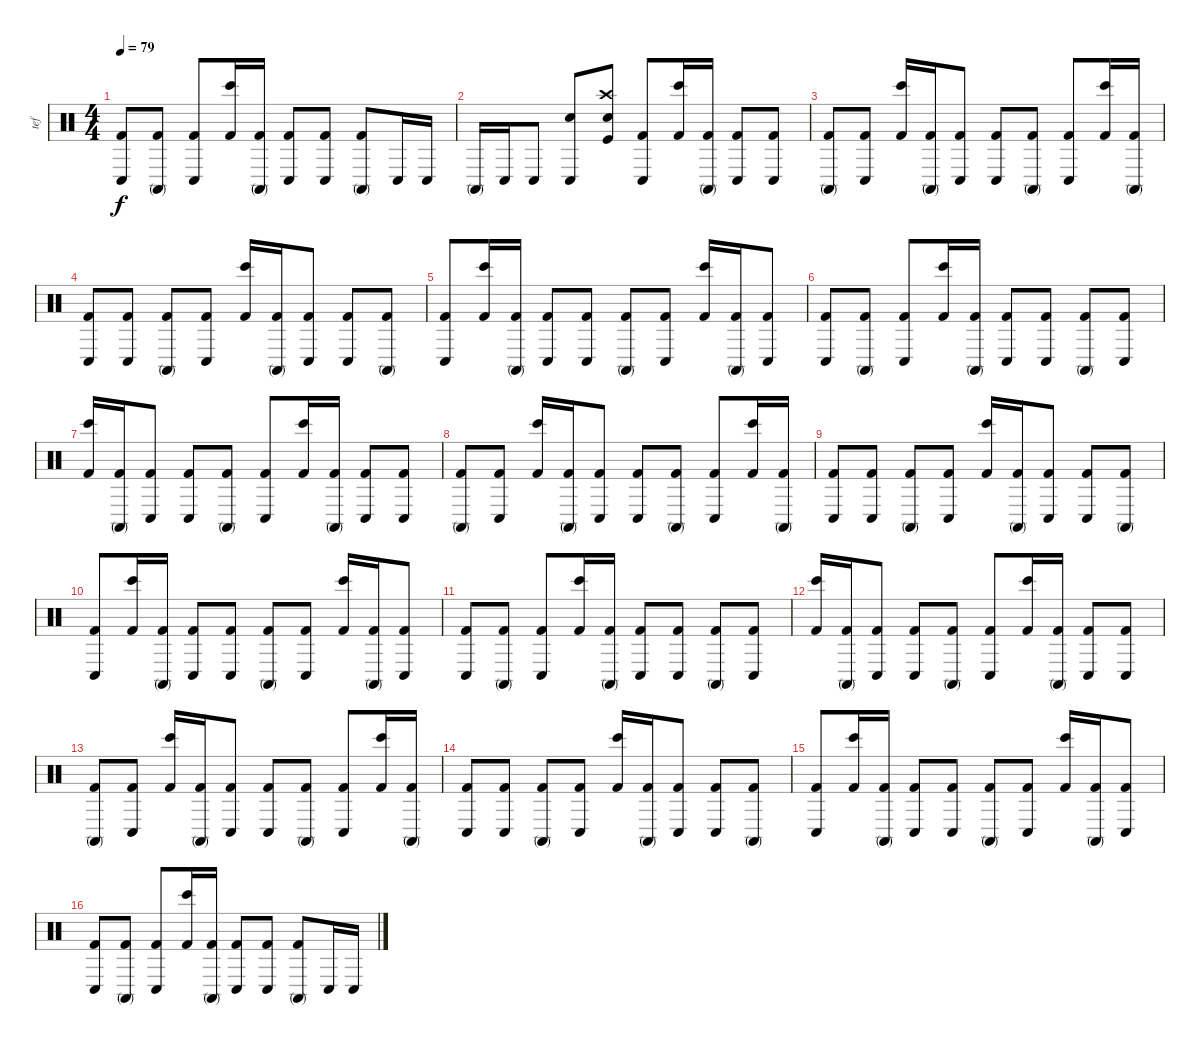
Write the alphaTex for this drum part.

\track ("tef" "tef") {instrument percussion}
\staff {score}
\articulation defaults
\ts (4 4)
\tempo 79
\clef neutral
\ks c
("Conga low (hit)" "Kick (hit) 2").8{dy f} ("Conga high (mute)" "Kick (hit) 2").8 ("Conga low (hit)" "Kick (hit) 2").8 ("Bongo High (hit)" "Kick (hit) 2").16 ("Conga high (mute)" "Kick (hit) 2").16 ("Conga low (hit)" "Kick (hit) 2").8 ("Conga low (hit)" "Kick (hit) 2").8 ("Conga high (mute)" "Kick (hit) 2").8 "Conga low (hit)".16{volume 15} "Conga low (hit)".16 |
"Conga high (mute)".16 "Conga low (hit)".16 "Conga low (hit)".8 ("Conga low (hit)" "Electric Snare (hit)").8 ("Electric Snare (hit)" "Crash high (hit)" "Kick (hit)").8 ("Conga low (hit)" "Kick (hit) 2").8 ("Bongo High (hit)" "Kick (hit) 2").16 ("Conga high (mute)" "Kick (hit) 2").16 ("Conga low (hit)" "Kick (hit) 2").8 ("Conga low (hit)" "Kick (hit) 2").8 |
("Conga high (mute)" "Kick (hit) 2").8 ("Conga low (hit)" "Kick (hit) 2").8 ("Bongo High (hit)" "Kick (hit) 2").16 ("Conga high (mute)" "Kick (hit) 2").16 ("Conga low (hit)" "Kick (hit) 2").8 ("Conga low (hit)" "Kick (hit) 2").8 ("Conga high (mute)" "Kick (hit) 2").8 ("Conga low (hit)" "Kick (hit) 2").8 ("Bongo High (hit)" "Kick (hit) 2").16 ("Conga high (mute)" "Kick (hit) 2").16 |
("Conga low (hit)" "Kick (hit) 2").8 ("Conga low (hit)" "Kick (hit) 2").8 ("Conga high (mute)" "Kick (hit) 2").8 ("Conga low (hit)" "Kick (hit) 2").8 ("Bongo High (hit)" "Kick (hit) 2").16 ("Conga high (mute)" "Kick (hit) 2").16 ("Conga low (hit)" "Kick (hit) 2").8 ("Conga low (hit)" "Kick (hit) 2").8 ("Conga high (mute)" "Kick (hit) 2").8 |
("Conga low (hit)" "Kick (hit) 2").8 ("Bongo High (hit)" "Kick (hit) 2").16 ("Conga high (mute)" "Kick (hit) 2").16 ("Conga low (hit)" "Kick (hit) 2").8 ("Conga low (hit)" "Kick (hit) 2").8 ("Conga high (mute)" "Kick (hit) 2").8 ("Conga low (hit)" "Kick (hit) 2").8 ("Bongo High (hit)" "Kick (hit) 2").16 ("Conga high (mute)" "Kick (hit) 2").16 ("Conga low (hit)" "Kick (hit) 2").8 |
("Conga low (hit)" "Kick (hit) 2").8 ("Conga high (mute)" "Kick (hit) 2").8 ("Conga low (hit)" "Kick (hit) 2").8 ("Bongo High (hit)" "Kick (hit) 2").16 ("Conga high (mute)" "Kick (hit) 2").16 ("Conga low (hit)" "Kick (hit) 2").8 ("Conga low (hit)" "Kick (hit) 2").8 ("Conga high (mute)" "Kick (hit) 2").8 ("Conga low (hit)" "Kick (hit) 2").8 |
("Bongo High (hit)" "Kick (hit) 2").16 ("Conga high (mute)" "Kick (hit) 2").16 ("Conga low (hit)" "Kick (hit) 2").8 ("Conga low (hit)" "Kick (hit) 2").8 ("Conga high (mute)" "Kick (hit) 2").8 ("Conga low (hit)" "Kick (hit) 2").8 ("Bongo High (hit)" "Kick (hit) 2").16 ("Conga high (mute)" "Kick (hit) 2").16 ("Conga low (hit)" "Kick (hit) 2").8 ("Conga low (hit)" "Kick (hit) 2").8 |
("Conga high (mute)" "Kick (hit) 2").8 ("Conga low (hit)" "Kick (hit) 2").8 ("Bongo High (hit)" "Kick (hit) 2").16 ("Conga high (mute)" "Kick (hit) 2").16 ("Conga low (hit)" "Kick (hit) 2").8 ("Conga low (hit)" "Kick (hit) 2").8 ("Conga high (mute)" "Kick (hit) 2").8 ("Conga low (hit)" "Kick (hit) 2").8 ("Bongo High (hit)" "Kick (hit) 2").16 ("Conga high (mute)" "Kick (hit) 2").16 |
("Conga low (hit)" "Kick (hit) 2").8 ("Conga low (hit)" "Kick (hit) 2").8 ("Conga high (mute)" "Kick (hit) 2").8 ("Conga low (hit)" "Kick (hit) 2").8 ("Bongo High (hit)" "Kick (hit) 2").16 ("Conga high (mute)" "Kick (hit) 2").16 ("Conga low (hit)" "Kick (hit) 2").8 ("Conga low (hit)" "Kick (hit) 2").8 ("Conga high (mute)" "Kick (hit) 2").8 |
("Conga low (hit)" "Kick (hit) 2").8 ("Bongo High (hit)" "Kick (hit) 2").16 ("Conga high (mute)" "Kick (hit) 2").16 ("Conga low (hit)" "Kick (hit) 2").8 ("Conga low (hit)" "Kick (hit) 2").8 ("Conga high (mute)" "Kick (hit) 2").8 ("Conga low (hit)" "Kick (hit) 2").8 ("Bongo High (hit)" "Kick (hit) 2").16 ("Conga high (mute)" "Kick (hit) 2").16 ("Conga low (hit)" "Kick (hit) 2").8 |
("Conga low (hit)" "Kick (hit) 2").8 ("Conga high (mute)" "Kick (hit) 2").8 ("Conga low (hit)" "Kick (hit) 2").8 ("Bongo High (hit)" "Kick (hit) 2").16 ("Conga high (mute)" "Kick (hit) 2").16 ("Conga low (hit)" "Kick (hit) 2").8 ("Conga low (hit)" "Kick (hit) 2").8 ("Conga high (mute)" "Kick (hit) 2").8 ("Conga low (hit)" "Kick (hit) 2").8 |
("Bongo High (hit)" "Kick (hit) 2").16 ("Conga high (mute)" "Kick (hit) 2").16 ("Conga low (hit)" "Kick (hit) 2").8 ("Conga low (hit)" "Kick (hit) 2").8 ("Conga high (mute)" "Kick (hit) 2").8 ("Conga low (hit)" "Kick (hit) 2").8 ("Bongo High (hit)" "Kick (hit) 2").16 ("Conga high (mute)" "Kick (hit) 2").16 ("Conga low (hit)" "Kick (hit) 2").8 ("Conga low (hit)" "Kick (hit) 2").8 |
("Conga high (mute)" "Kick (hit) 2").8 ("Conga low (hit)" "Kick (hit) 2").8 ("Bongo High (hit)" "Kick (hit) 2").16 ("Conga high (mute)" "Kick (hit) 2").16 ("Conga low (hit)" "Kick (hit) 2").8 ("Conga low (hit)" "Kick (hit) 2").8 ("Conga high (mute)" "Kick (hit) 2").8 ("Conga low (hit)" "Kick (hit) 2").8 ("Bongo High (hit)" "Kick (hit) 2").16 ("Conga high (mute)" "Kick (hit) 2").16 |
("Conga low (hit)" "Kick (hit) 2").8 ("Conga low (hit)" "Kick (hit) 2").8 ("Conga high (mute)" "Kick (hit) 2").8 ("Conga low (hit)" "Kick (hit) 2").8 ("Bongo High (hit)" "Kick (hit) 2").16 ("Conga high (mute)" "Kick (hit) 2").16 ("Conga low (hit)" "Kick (hit) 2").8 ("Conga low (hit)" "Kick (hit) 2").8 ("Conga high (mute)" "Kick (hit) 2").8 |
("Conga low (hit)" "Kick (hit) 2").8 ("Bongo High (hit)" "Kick (hit) 2").16 ("Conga high (mute)" "Kick (hit) 2").16 ("Conga low (hit)" "Kick (hit) 2").8 ("Conga low (hit)" "Kick (hit) 2").8 ("Conga high (mute)" "Kick (hit) 2").8 ("Conga low (hit)" "Kick (hit) 2").8 ("Bongo High (hit)" "Kick (hit) 2").16 ("Conga high (mute)" "Kick (hit) 2").16 ("Conga low (hit)" "Kick (hit) 2").8 |
("Conga low (hit)" "Kick (hit) 2").8 ("Conga high (mute)" "Kick (hit) 2").8 ("Conga low (hit)" "Kick (hit) 2").8 ("Bongo High (hit)" "Kick (hit) 2").16 ("Conga high (mute)" "Kick (hit) 2").16 ("Conga low (hit)" "Kick (hit) 2").8 ("Conga low (hit)" "Kick (hit) 2").8 ("Conga high (mute)" "Kick (hit) 2").8 "Conga low (hit)".16{volume 15} "Conga low (hit)".16
